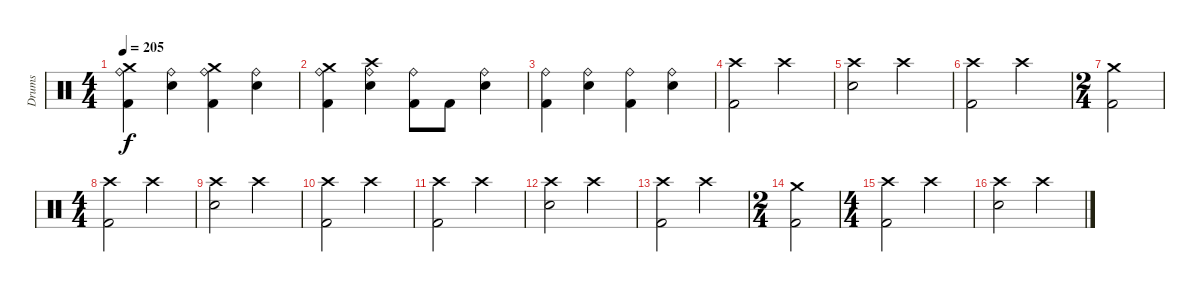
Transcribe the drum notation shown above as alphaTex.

\track ("Drums" "Drums") {instrument percussion}
\staff {score}
\articulation defaults
\ts (4 4)
\tempo 205
\clef neutral
\ks c
("Crash medium (hit)" "Ride (bell)" "Kick (hit) 2").4{dy f} ("Ride (bell)" "Electric Snare (hit)").4 ("Crash medium (hit)" "Ride (bell)" "Kick (hit) 2").4 ("Ride (bell)" "Electric Snare (hit)").4 |
("Crash medium (hit)" "Ride (bell)" "Kick (hit) 2").4 ("Crash high (hit)" "Ride (bell)" "Electric Snare (hit)").4 ("Ride (bell)" "Kick (hit) 2").8 "Kick (hit) 2".8 ("Ride (bell)" "Electric Snare (hit)").4 |
("Ride (bell)" "Kick (hit) 2").4 ("Ride (bell)" "Electric Snare (hit)").4 ("Ride (bell)" "Kick (hit) 2").4 ("Ride (bell)" "Electric Snare (hit)").4 |
("Crash high (hit)" "Kick (hit) 2").2 "Crash high (hit)".2 |
("Crash high (hit)" "Electric Snare (hit)").2 "Crash high (hit)".2 |
("Crash high (hit)" "Kick (hit) 2").2 "Crash high (hit)".2 |
\ts (2 4)
("Crash medium (hit)" "Kick (hit) 2").2 |
\ts (4 4)
("Crash high (hit)" "Kick (hit) 2").2 "Crash high (hit)".2 |
("Crash high (hit)" "Electric Snare (hit)").2 "Crash high (hit)".2 |
("Crash high (hit)" "Kick (hit) 2").2 "Crash high (hit)".2 |
("Crash high (hit)" "Kick (hit) 2").2 "Crash high (hit)".2 |
("Crash high (hit)" "Electric Snare (hit)").2 "Crash high (hit)".2 |
("Crash high (hit)" "Kick (hit) 2").2 "Crash high (hit)".2 |
\ts (2 4)
("Crash medium (hit)" "Kick (hit) 2").2 |
\ts (4 4)
("Crash high (hit)" "Kick (hit) 2").2 "Crash high (hit)".2 |
("Crash high (hit)" "Electric Snare (hit)").2 "Crash high (hit)".2
